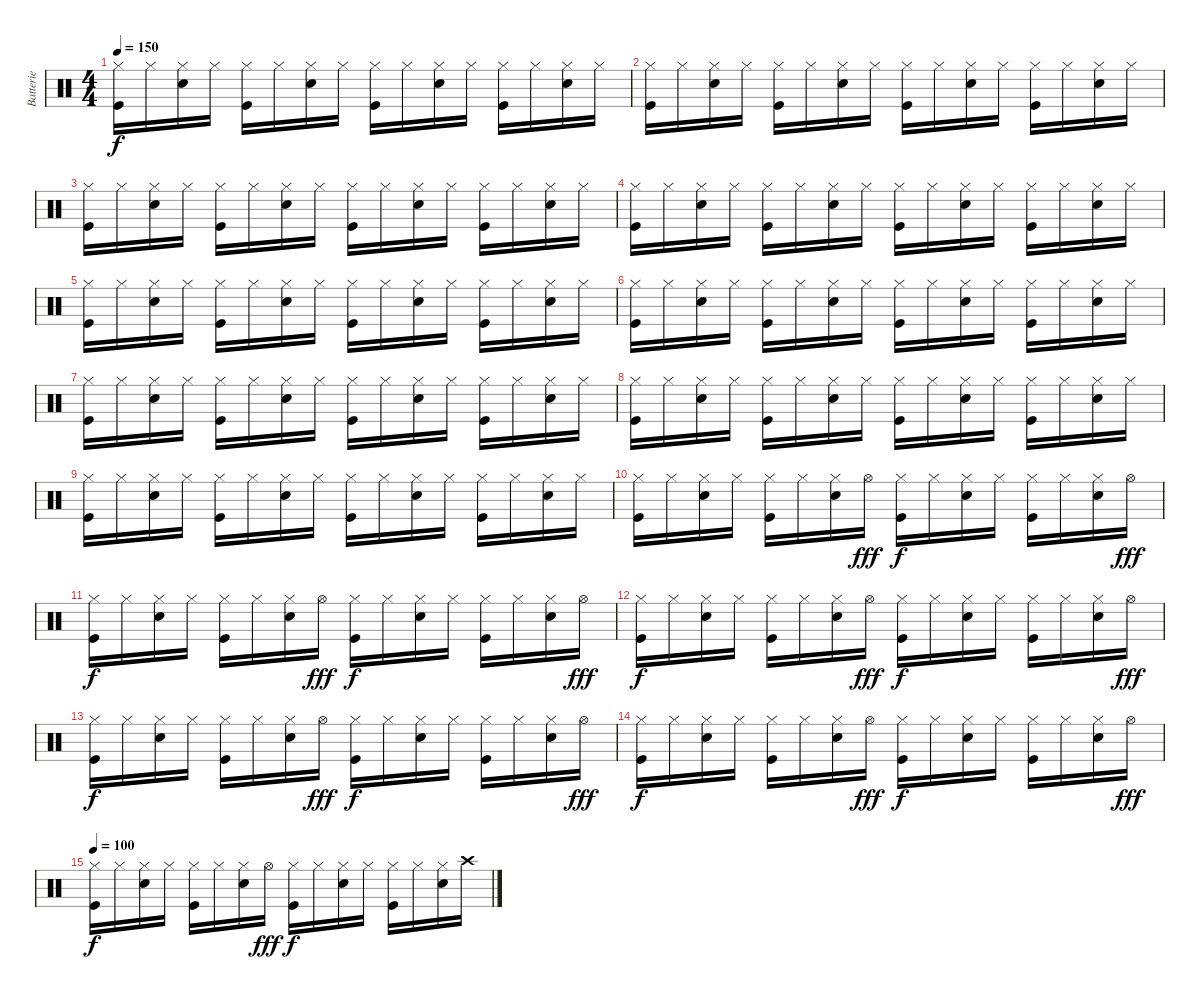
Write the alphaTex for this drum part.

\track ("Batterie" "Batterie") {instrument percussion}
\staff {score}
\articulation defaults
\ts (4 4)
\tempo 150
\clef neutral
\ks c
("Hi-Hat (closed)" "Kick (hit)").16{dy f} "Hi-Hat (closed)".16 ("Hi-Hat (closed)" "Snare (hit) 2").16 "Hi-Hat (closed)".16 ("Hi-Hat (closed)" "Kick (hit)").16 "Hi-Hat (closed)".16 ("Hi-Hat (closed)" "Snare (hit) 2").16 "Hi-Hat (closed)".16 ("Hi-Hat (closed)" "Kick (hit)").16 "Hi-Hat (closed)".16 ("Hi-Hat (closed)" "Snare (hit) 2").16 "Hi-Hat (closed)".16 ("Hi-Hat (closed)" "Kick (hit)").16 "Hi-Hat (closed)".16 ("Hi-Hat (closed)" "Snare (hit) 2").16 "Hi-Hat (closed)".16 |
("Hi-Hat (closed)" "Kick (hit)").16 "Hi-Hat (closed)".16 ("Hi-Hat (closed)" "Snare (hit) 2").16 "Hi-Hat (closed)".16 ("Hi-Hat (closed)" "Kick (hit)").16 "Hi-Hat (closed)".16 ("Hi-Hat (closed)" "Snare (hit) 2").16 "Hi-Hat (closed)".16 ("Hi-Hat (closed)" "Kick (hit)").16 "Hi-Hat (closed)".16 ("Hi-Hat (closed)" "Snare (hit) 2").16 "Hi-Hat (closed)".16 ("Hi-Hat (closed)" "Kick (hit)").16 "Hi-Hat (closed)".16 ("Hi-Hat (closed)" "Snare (hit) 2").16 "Hi-Hat (closed)".16 |
("Hi-Hat (closed)" "Kick (hit)").16 "Hi-Hat (closed)".16 ("Hi-Hat (closed)" "Snare (hit) 2").16 "Hi-Hat (closed)".16 ("Hi-Hat (closed)" "Kick (hit)").16 "Hi-Hat (closed)".16 ("Hi-Hat (closed)" "Snare (hit) 2").16 "Hi-Hat (closed)".16 ("Hi-Hat (closed)" "Kick (hit)").16 "Hi-Hat (closed)".16 ("Hi-Hat (closed)" "Snare (hit) 2").16 "Hi-Hat (closed)".16 ("Hi-Hat (closed)" "Kick (hit)").16 "Hi-Hat (closed)".16 ("Hi-Hat (closed)" "Snare (hit) 2").16 "Hi-Hat (closed)".16 |
("Hi-Hat (closed)" "Kick (hit)").16 "Hi-Hat (closed)".16 ("Hi-Hat (closed)" "Snare (hit) 2").16 "Hi-Hat (closed)".16 ("Hi-Hat (closed)" "Kick (hit)").16 "Hi-Hat (closed)".16 ("Hi-Hat (closed)" "Snare (hit) 2").16 "Hi-Hat (closed)".16 ("Hi-Hat (closed)" "Kick (hit)").16 "Hi-Hat (closed)".16 ("Hi-Hat (closed)" "Snare (hit) 2").16 "Hi-Hat (closed)".16 ("Hi-Hat (closed)" "Kick (hit)").16 "Hi-Hat (closed)".16 ("Hi-Hat (closed)" "Snare (hit) 2").16 "Hi-Hat (closed)".16 |
("Hi-Hat (closed)" "Kick (hit)").16 "Hi-Hat (closed)".16 ("Hi-Hat (closed)" "Snare (hit) 2").16 "Hi-Hat (closed)".16 ("Hi-Hat (closed)" "Kick (hit)").16 "Hi-Hat (closed)".16 ("Hi-Hat (closed)" "Snare (hit) 2").16 "Hi-Hat (closed)".16 ("Hi-Hat (closed)" "Kick (hit)").16 "Hi-Hat (closed)".16 ("Hi-Hat (closed)" "Snare (hit) 2").16 "Hi-Hat (closed)".16 ("Hi-Hat (closed)" "Kick (hit)").16 "Hi-Hat (closed)".16 ("Hi-Hat (closed)" "Snare (hit) 2").16 "Hi-Hat (closed)".16 |
("Hi-Hat (closed)" "Kick (hit)").16 "Hi-Hat (closed)".16 ("Hi-Hat (closed)" "Snare (hit) 2").16 "Hi-Hat (closed)".16 ("Hi-Hat (closed)" "Kick (hit)").16 "Hi-Hat (closed)".16 ("Hi-Hat (closed)" "Snare (hit) 2").16 "Hi-Hat (closed)".16 ("Hi-Hat (closed)" "Kick (hit)").16 "Hi-Hat (closed)".16 ("Hi-Hat (closed)" "Snare (hit) 2").16 "Hi-Hat (closed)".16 ("Hi-Hat (closed)" "Kick (hit)").16 "Hi-Hat (closed)".16 ("Hi-Hat (closed)" "Snare (hit) 2").16 "Hi-Hat (closed)".16 |
("Hi-Hat (closed)" "Kick (hit)").16 "Hi-Hat (closed)".16 ("Hi-Hat (closed)" "Snare (hit) 2").16 "Hi-Hat (closed)".16 ("Hi-Hat (closed)" "Kick (hit)").16 "Hi-Hat (closed)".16 ("Hi-Hat (closed)" "Snare (hit) 2").16 "Hi-Hat (closed)".16 ("Hi-Hat (closed)" "Kick (hit)").16 "Hi-Hat (closed)".16 ("Hi-Hat (closed)" "Snare (hit) 2").16 "Hi-Hat (closed)".16 ("Hi-Hat (closed)" "Kick (hit)").16 "Hi-Hat (closed)".16 ("Hi-Hat (closed)" "Snare (hit) 2").16 "Hi-Hat (closed)".16 |
("Hi-Hat (closed)" "Kick (hit)").16 "Hi-Hat (closed)".16 ("Hi-Hat (closed)" "Snare (hit) 2").16 "Hi-Hat (closed)".16 ("Hi-Hat (closed)" "Kick (hit)").16 "Hi-Hat (closed)".16 ("Hi-Hat (closed)" "Snare (hit) 2").16 "Hi-Hat (closed)".16 ("Hi-Hat (closed)" "Kick (hit)").16 "Hi-Hat (closed)".16 ("Hi-Hat (closed)" "Snare (hit) 2").16 "Hi-Hat (closed)".16 ("Hi-Hat (closed)" "Kick (hit)").16 "Hi-Hat (closed)".16 ("Hi-Hat (closed)" "Snare (hit) 2").16 "Hi-Hat (closed)".16 |
("Hi-Hat (closed)" "Kick (hit)").16 "Hi-Hat (closed)".16 ("Hi-Hat (closed)" "Snare (hit) 2").16 "Hi-Hat (closed)".16 ("Hi-Hat (closed)" "Kick (hit)").16 "Hi-Hat (closed)".16 ("Hi-Hat (closed)" "Snare (hit) 2").16 "Hi-Hat (closed)".16 ("Hi-Hat (closed)" "Kick (hit)").16 "Hi-Hat (closed)".16 ("Hi-Hat (closed)" "Snare (hit) 2").16 "Hi-Hat (closed)".16 ("Hi-Hat (closed)" "Kick (hit)").16 "Hi-Hat (closed)".16 ("Hi-Hat (closed)" "Snare (hit) 2").16 "Hi-Hat (closed)".16 |
("Hi-Hat (closed)" "Kick (hit)").16 "Hi-Hat (closed)".16 ("Hi-Hat (closed)" "Snare (hit) 2").16 "Hi-Hat (closed)".16 ("Hi-Hat (closed)" "Kick (hit)").16 "Hi-Hat (closed)".16 ("Hi-Hat (closed)" "Snare (hit) 2").16 "Hi-Hat (open)".16{dy fff} ("Hi-Hat (closed)" "Kick (hit)").16{dy f} "Hi-Hat (closed)".16 ("Hi-Hat (closed)" "Snare (hit) 2").16 "Hi-Hat (closed)".16 ("Hi-Hat (closed)" "Kick (hit)").16 "Hi-Hat (closed)".16 ("Hi-Hat (closed)" "Snare (hit) 2").16 "Hi-Hat (open)".16{dy fff} |
("Hi-Hat (closed)" "Kick (hit)").16{dy f} "Hi-Hat (closed)".16 ("Hi-Hat (closed)" "Snare (hit) 2").16 "Hi-Hat (closed)".16 ("Hi-Hat (closed)" "Kick (hit)").16 "Hi-Hat (closed)".16 ("Hi-Hat (closed)" "Snare (hit) 2").16 "Hi-Hat (open)".16{dy fff} ("Hi-Hat (closed)" "Kick (hit)").16{dy f} "Hi-Hat (closed)".16 ("Hi-Hat (closed)" "Snare (hit) 2").16 "Hi-Hat (closed)".16 ("Hi-Hat (closed)" "Kick (hit)").16 "Hi-Hat (closed)".16 ("Hi-Hat (closed)" "Snare (hit) 2").16 "Hi-Hat (open)".16{dy fff} |
("Hi-Hat (closed)" "Kick (hit)").16{dy f} "Hi-Hat (closed)".16 ("Hi-Hat (closed)" "Snare (hit) 2").16 "Hi-Hat (closed)".16 ("Hi-Hat (closed)" "Kick (hit)").16 "Hi-Hat (closed)".16 ("Hi-Hat (closed)" "Snare (hit) 2").16 "Hi-Hat (open)".16{dy fff} ("Hi-Hat (closed)" "Kick (hit)").16{dy f} "Hi-Hat (closed)".16 ("Hi-Hat (closed)" "Snare (hit) 2").16 "Hi-Hat (closed)".16 ("Hi-Hat (closed)" "Kick (hit)").16 "Hi-Hat (closed)".16 ("Hi-Hat (closed)" "Snare (hit) 2").16 "Hi-Hat (open)".16{dy fff} |
("Hi-Hat (closed)" "Kick (hit)").16{dy f} "Hi-Hat (closed)".16 ("Hi-Hat (closed)" "Snare (hit) 2").16 "Hi-Hat (closed)".16 ("Hi-Hat (closed)" "Kick (hit)").16 "Hi-Hat (closed)".16 ("Hi-Hat (closed)" "Snare (hit) 2").16 "Hi-Hat (open)".16{dy fff} ("Hi-Hat (closed)" "Kick (hit)").16{dy f} "Hi-Hat (closed)".16 ("Hi-Hat (closed)" "Snare (hit) 2").16 "Hi-Hat (closed)".16 ("Hi-Hat (closed)" "Kick (hit)").16 "Hi-Hat (closed)".16 ("Hi-Hat (closed)" "Snare (hit) 2").16 "Hi-Hat (open)".16{dy fff} |
("Hi-Hat (closed)" "Kick (hit)").16{dy f} "Hi-Hat (closed)".16 ("Hi-Hat (closed)" "Snare (hit) 2").16 "Hi-Hat (closed)".16 ("Hi-Hat (closed)" "Kick (hit)").16 "Hi-Hat (closed)".16 ("Hi-Hat (closed)" "Snare (hit) 2").16 "Hi-Hat (open)".16{dy fff} ("Hi-Hat (closed)" "Kick (hit)").16{dy f} "Hi-Hat (closed)".16 ("Hi-Hat (closed)" "Snare (hit) 2").16 "Hi-Hat (closed)".16 ("Hi-Hat (closed)" "Kick (hit)").16 "Hi-Hat (closed)".16 ("Hi-Hat (closed)" "Snare (hit) 2").16 "Hi-Hat (open)".16{dy fff} |
\tempo 100
("Hi-Hat (closed)" "Kick (hit)").16{dy f} "Hi-Hat (closed)".16 ("Hi-Hat (closed)" "Snare (hit) 2").16 "Hi-Hat (closed)".16 ("Hi-Hat (closed)" "Kick (hit)").16 "Hi-Hat (closed)".16 ("Hi-Hat (closed)" "Snare (hit) 2").16 "Hi-Hat (open)".16{dy fff} ("Hi-Hat (closed)" "Kick (hit)").16{dy f} "Hi-Hat (closed)".16 ("Hi-Hat (closed)" "Snare (hit) 2").16 "Hi-Hat (closed)".16 ("Hi-Hat (closed)" "Kick (hit)").16 "Hi-Hat (closed)".16 ("Hi-Hat (closed)" "Snare (hit) 2").16 "Crash high (hit)".16
